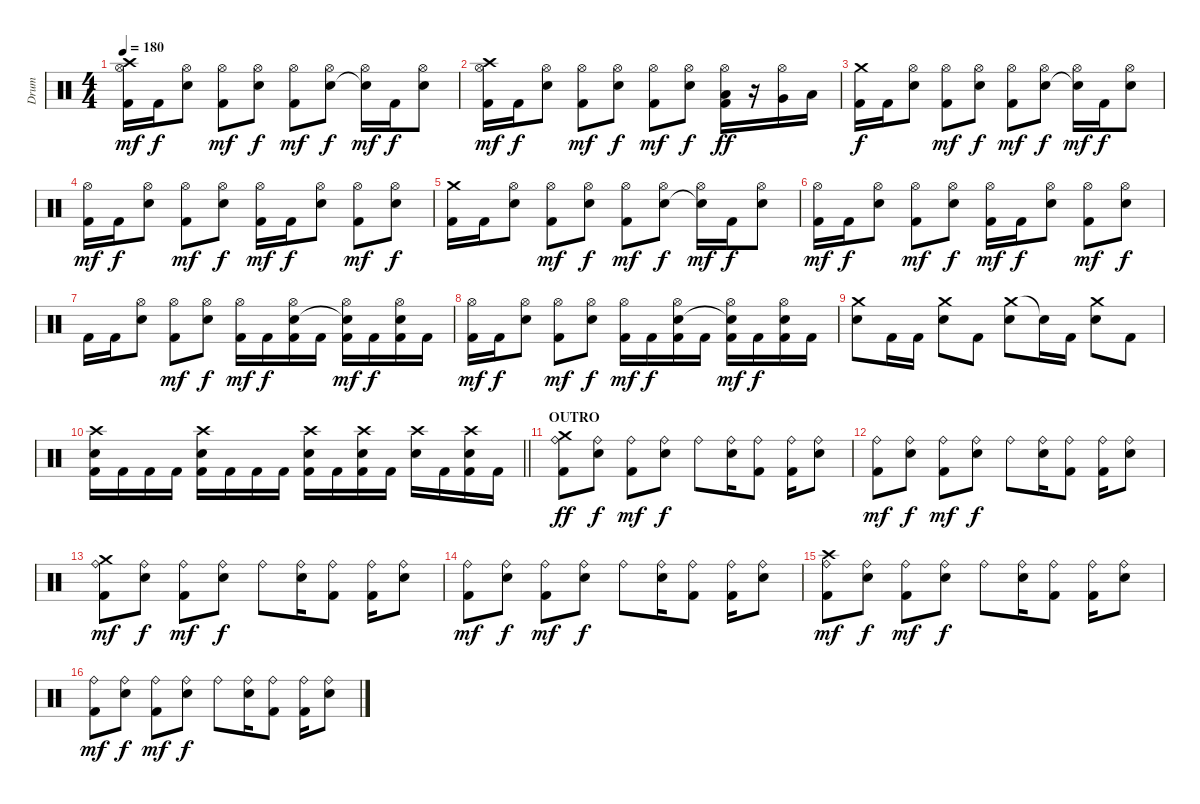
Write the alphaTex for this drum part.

\track ("Drum" "Drum") {instrument percussion}
\staff {score}
\articulation defaults
\ts (4 4)
\tempo 180
\clef neutral
\ks c
("Hi-Hat (open)" "Crash high (hit)" "Kick (hit) 2").16{dy mf} "Kick (hit) 2".16{dy f} ("Hi-Hat (open)" "Electric Snare (hit)").8 ("Hi-Hat (open)" "Kick (hit) 2").8{dy mf} ("Hi-Hat (open)" "Electric Snare (hit)").8{dy f} ("Hi-Hat (open)" "Kick (hit) 2").8{dy mf} ("Hi-Hat (open)" "Electric Snare (hit)").8{dy f} ("Hi-Hat (open)" "Electric Snare (hit)"{t}).16{dy mf} "Kick (hit) 2".16{dy f} ("Hi-Hat (open)" "Electric Snare (hit)").8 |
("Hi-Hat (open)" "Crash high (hit)" "Kick (hit) 2").16{dy mf} "Kick (hit) 2".16{dy f} ("Hi-Hat (open)" "Electric Snare (hit)").8 ("Hi-Hat (open)" "Kick (hit) 2").8{dy mf} ("Hi-Hat (open)" "Electric Snare (hit)").8{dy f} ("Hi-Hat (open)" "Kick (hit) 2").8{dy mf} ("Hi-Hat (open)" "Electric Snare (hit)").8{dy f} ("Hi-Hat (open)" "Low Tom (hit)" "Kick (hit) 2").16{dy ff} r.16 ("Hi-Hat (open)" "Very Low Tom (hit)").16 "Low Floor Tom (hit)".16 |
("Crash medium (hit)" "Kick (hit) 2").16{dy f} "Kick (hit) 2".16 ("Hi-Hat (open)" "Electric Snare (hit)").8 ("Hi-Hat (open)" "Kick (hit) 2").8{dy mf} ("Hi-Hat (open)" "Electric Snare (hit)").8{dy f} ("Hi-Hat (open)" "Kick (hit) 2").8{dy mf} ("Hi-Hat (open)" "Electric Snare (hit)").8{dy f} ("Hi-Hat (open)" "Electric Snare (hit)"{t}).16{dy mf} "Kick (hit) 2".16{dy f} ("Hi-Hat (open)" "Electric Snare (hit)").8 |
("Hi-Hat (open)" "Kick (hit) 2").16{dy mf} "Kick (hit) 2".16{dy f} ("Hi-Hat (open)" "Electric Snare (hit)").8 ("Hi-Hat (open)" "Kick (hit) 2").8{dy mf} ("Hi-Hat (open)" "Electric Snare (hit)").8{dy f} ("Hi-Hat (open)" "Kick (hit) 2").16{dy mf} "Kick (hit) 2".16{dy f} ("Hi-Hat (open)" "Electric Snare (hit)").8 ("Hi-Hat (open)" "Kick (hit) 2").8{dy mf} ("Hi-Hat (open)" "Electric Snare (hit)").8{dy f} |
("Crash medium (hit)" "Kick (hit) 2").16 "Kick (hit) 2".16 ("Hi-Hat (open)" "Electric Snare (hit)").8 ("Hi-Hat (open)" "Kick (hit) 2").8{dy mf} ("Hi-Hat (open)" "Electric Snare (hit)").8{dy f} ("Hi-Hat (open)" "Kick (hit) 2").8{dy mf} ("Hi-Hat (open)" "Electric Snare (hit)").8{dy f} ("Hi-Hat (open)" "Electric Snare (hit)"{t}).16{dy mf} "Kick (hit) 2".16{dy f} ("Hi-Hat (open)" "Electric Snare (hit)").8 |
("Hi-Hat (open)" "Kick (hit) 2").16{dy mf} "Kick (hit) 2".16{dy f} ("Hi-Hat (open)" "Electric Snare (hit)").8 ("Hi-Hat (open)" "Kick (hit) 2").8{dy mf} ("Hi-Hat (open)" "Electric Snare (hit)").8{dy f} ("Hi-Hat (open)" "Kick (hit) 2").16{dy mf} "Kick (hit) 2".16{dy f} ("Hi-Hat (open)" "Electric Snare (hit)").8 ("Hi-Hat (open)" "Kick (hit) 2").8{dy mf} ("Hi-Hat (open)" "Electric Snare (hit)").8{dy f} |
"Kick (hit) 2".16 "Kick (hit) 2".16 ("Hi-Hat (open)" "Electric Snare (hit)").8 ("Hi-Hat (open)" "Kick (hit) 2").8{dy mf} ("Hi-Hat (open)" "Electric Snare (hit)").8{dy f} ("Hi-Hat (open)" "Kick (hit) 2").16{dy mf} "Kick (hit) 2".16{dy f} ("Hi-Hat (open)" "Electric Snare (hit)" "Kick (hit) 2").16 "Kick (hit) 2".16 ("Hi-Hat (open)" "Electric Snare (hit)"{t} "Kick (hit) 2").16{dy mf} "Kick (hit) 2".16{dy f} ("Hi-Hat (open)" "Electric Snare (hit)" "Kick (hit) 2").16 "Kick (hit) 2".16 |
("Hi-Hat (open)" "Kick (hit) 2").16{dy mf} "Kick (hit) 2".16{dy f} ("Hi-Hat (open)" "Electric Snare (hit)").8 ("Hi-Hat (open)" "Kick (hit) 2").8{dy mf} ("Hi-Hat (open)" "Electric Snare (hit)").8{dy f} ("Hi-Hat (open)" "Kick (hit) 2").16{dy mf} "Kick (hit) 2".16{dy f} ("Hi-Hat (open)" "Electric Snare (hit)" "Kick (hit) 2").16 "Kick (hit) 2".16 ("Hi-Hat (open)" "Electric Snare (hit)"{t} "Kick (hit) 2").16{dy mf} "Kick (hit) 2".16{dy f} ("Hi-Hat (open)" "Electric Snare (hit)" "Kick (hit) 2").16 "Kick (hit) 2".16 |
("Crash medium (hit)" "Electric Snare (hit)").8 "Kick (hit) 2".16 "Kick (hit) 2".16 ("Crash medium (hit)" "Electric Snare (hit)").8 "Kick (hit) 2".8 ("Crash medium (hit)" "Electric Snare (hit)").8 "Electric Snare (hit)"{t}.16 "Kick (hit) 2".16 ("Crash medium (hit)" "Electric Snare (hit)").8 "Kick (hit) 2".8 |
\barLineRight lightlight
("Crash high (hit)" "Electric Snare (hit)" "Kick (hit) 2").16 "Kick (hit) 2".16 "Kick (hit) 2".16 "Kick (hit) 2".16 ("Crash high (hit)" "Electric Snare (hit)" "Kick (hit) 2").16 "Kick (hit) 2".16 "Kick (hit) 2".16 "Kick (hit) 2".16 ("Crash high (hit)" "Electric Snare (hit)" "Kick (hit) 2").16 "Kick (hit) 2".16 ("Crash high (hit)" "Electric Snare (hit)" "Kick (hit) 2").16 "Kick (hit) 2".16 ("Crash high (hit)" "Electric Snare (hit)").16 "Kick (hit) 2".16 ("Crash high (hit)" "Electric Snare (hit)" "Kick (hit) 2").16 "Kick (hit) 2".16 |
\section ("" "OUTRO")
("Ride (bell)" "Crash medium (hit)" "Kick (hit) 2").8{dy ff} ("Ride (bell)" "Electric Snare (hit)").8{dy f} ("Ride (bell)" "Kick (hit) 2").8{dy mf} ("Ride (bell)" "Electric Snare (hit)").8{dy f} "Ride (bell)".8 ("Ride (bell)" "Electric Snare (hit)").16 ("Ride (bell)" "Kick (hit) 2").8 ("Ride (bell)" "Kick (hit) 2").16 ("Ride (bell)" "Electric Snare (hit)").8 |
("Ride (bell)" "Kick (hit) 2").8{dy mf} ("Ride (bell)" "Electric Snare (hit)").8{dy f} ("Ride (bell)" "Kick (hit) 2").8{dy mf} ("Ride (bell)" "Electric Snare (hit)").8{dy f} "Ride (bell)".8 ("Ride (bell)" "Electric Snare (hit)").16 ("Ride (bell)" "Kick (hit) 2").8 ("Ride (bell)" "Kick (hit) 2").16 ("Ride (bell)" "Electric Snare (hit)").8 |
("Ride (bell)" "Crash medium (hit)" "Kick (hit) 2").8{dy mf} ("Ride (bell)" "Electric Snare (hit)").8{dy f} ("Ride (bell)" "Kick (hit) 2").8{dy mf} ("Ride (bell)" "Electric Snare (hit)").8{dy f} "Ride (bell)".8 ("Ride (bell)" "Electric Snare (hit)").16 ("Ride (bell)" "Kick (hit) 2").8 ("Ride (bell)" "Kick (hit) 2").16 ("Ride (bell)" "Electric Snare (hit)").8 |
("Ride (bell)" "Kick (hit) 2").8{dy mf} ("Ride (bell)" "Electric Snare (hit)").8{dy f} ("Ride (bell)" "Kick (hit) 2").8{dy mf} ("Ride (bell)" "Electric Snare (hit)").8{dy f} "Ride (bell)".8 ("Ride (bell)" "Electric Snare (hit)").16 ("Ride (bell)" "Kick (hit) 2").8 ("Ride (bell)" "Kick (hit) 2").16 ("Ride (bell)" "Electric Snare (hit)").8 |
("Ride (bell)" "Crash high (hit)" "Kick (hit) 2").8{dy mf} ("Ride (bell)" "Electric Snare (hit)").8{dy f} ("Ride (bell)" "Kick (hit) 2").8{dy mf} ("Ride (bell)" "Electric Snare (hit)").8{dy f} "Ride (bell)".8 ("Ride (bell)" "Electric Snare (hit)").16 ("Ride (bell)" "Kick (hit) 2").8 ("Ride (bell)" "Kick (hit) 2").16 ("Ride (bell)" "Electric Snare (hit)").8 |
("Ride (bell)" "Kick (hit) 2").8{dy mf} ("Ride (bell)" "Electric Snare (hit)").8{dy f} ("Ride (bell)" "Kick (hit) 2").8{dy mf} ("Ride (bell)" "Electric Snare (hit)").8{dy f} "Ride (bell)".8 ("Ride (bell)" "Electric Snare (hit)").16 ("Ride (bell)" "Kick (hit) 2").8 ("Ride (bell)" "Kick (hit) 2").16 ("Ride (bell)" "Electric Snare (hit)").8
